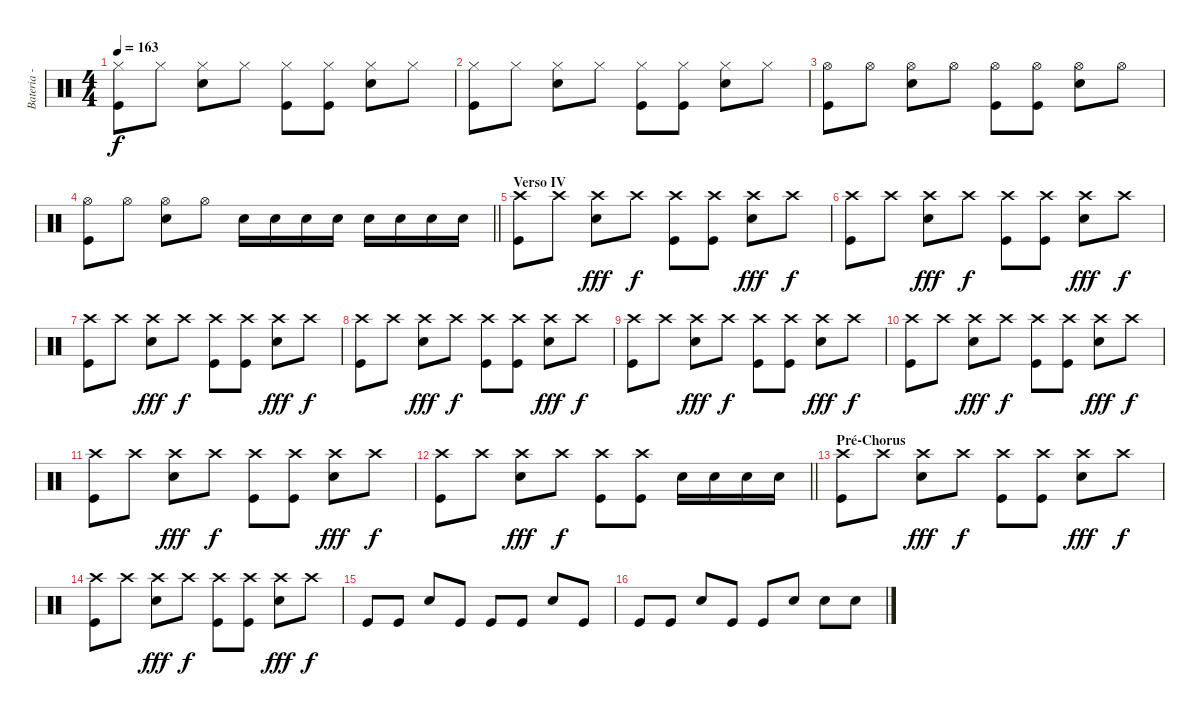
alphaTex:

\track ("Bateria - Larzon " "Bateria - ") {instrument percussion}
\staff {score}
\articulation defaults
\ts (4 4)
\tempo 163
\clef neutral
\ks c
("Kick (hit)" "Hi-Hat (closed)").8{dy f} "Hi-Hat (closed)".8 ("Electric Snare (hit)" "Hi-Hat (closed)").8 "Hi-Hat (closed)".8 ("Kick (hit)" "Hi-Hat (closed)").8 ("Kick (hit)" "Hi-Hat (closed)").8 ("Electric Snare (hit)" "Hi-Hat (closed)").8 "Hi-Hat (closed)".8 |
("Kick (hit)" "Hi-Hat (closed)").8 "Hi-Hat (closed)".8 ("Electric Snare (hit)" "Hi-Hat (closed)").8 "Hi-Hat (closed)".8 ("Kick (hit)" "Hi-Hat (closed)").8 ("Kick (hit)" "Hi-Hat (closed)").8 ("Electric Snare (hit)" "Hi-Hat (closed)").8 "Hi-Hat (closed)".8 |
("Kick (hit)" "Hi-Hat (open)").8 "Hi-Hat (open)".8 ("Electric Snare (hit)" "Hi-Hat (open)").8 "Hi-Hat (open)".8 ("Kick (hit)" "Hi-Hat (open)").8 ("Kick (hit)" "Hi-Hat (open)").8 ("Electric Snare (hit)" "Hi-Hat (open)").8 "Hi-Hat (open)".8 |
\barLineRight lightlight
("Kick (hit)" "Hi-Hat (open)").8 "Hi-Hat (open)".8 ("Electric Snare (hit)" "Hi-Hat (open)").8 "Hi-Hat (open)".8 "Electric Snare (hit)".16 "Electric Snare (hit)".16 "Electric Snare (hit)".16 "Electric Snare (hit)".16 "Electric Snare (hit)".16 "Electric Snare (hit)".16 "Electric Snare (hit)".16 "Electric Snare (hit)".16 |
\section ("" "Verso IV")
("Kick (hit)" "Crash high (hit)").8 "Crash high (hit)".8 ("Electric Snare (hit)" "Crash high (hit)").8{dy fff} "Crash high (hit)".8{dy f} ("Kick (hit)" "Crash high (hit)").8 ("Kick (hit)" "Crash high (hit)").8 ("Electric Snare (hit)" "Crash high (hit)").8{dy fff} "Crash high (hit)".8{dy f} |
("Kick (hit)" "Crash high (hit)").8 "Crash high (hit)".8 ("Electric Snare (hit)" "Crash high (hit)").8{dy fff} "Crash high (hit)".8{dy f} ("Kick (hit)" "Crash high (hit)").8 ("Kick (hit)" "Crash high (hit)").8 ("Electric Snare (hit)" "Crash high (hit)").8{dy fff} "Crash high (hit)".8{dy f} |
("Kick (hit)" "Crash high (hit)").8 "Crash high (hit)".8 ("Electric Snare (hit)" "Crash high (hit)").8{dy fff} "Crash high (hit)".8{dy f} ("Kick (hit)" "Crash high (hit)").8 ("Kick (hit)" "Crash high (hit)").8 ("Electric Snare (hit)" "Crash high (hit)").8{dy fff} "Crash high (hit)".8{dy f} |
("Kick (hit)" "Crash high (hit)").8 "Crash high (hit)".8 ("Electric Snare (hit)" "Crash high (hit)").8{dy fff} "Crash high (hit)".8{dy f} ("Kick (hit)" "Crash high (hit)").8 ("Kick (hit)" "Crash high (hit)").8 ("Electric Snare (hit)" "Crash high (hit)").8{dy fff} "Crash high (hit)".8{dy f} |
("Kick (hit)" "Crash high (hit)").8 "Crash high (hit)".8 ("Electric Snare (hit)" "Crash high (hit)").8{dy fff} "Crash high (hit)".8{dy f} ("Kick (hit)" "Crash high (hit)").8 ("Kick (hit)" "Crash high (hit)").8 ("Electric Snare (hit)" "Crash high (hit)").8{dy fff} "Crash high (hit)".8{dy f} |
("Kick (hit)" "Crash high (hit)").8 "Crash high (hit)".8 ("Electric Snare (hit)" "Crash high (hit)").8{dy fff} "Crash high (hit)".8{dy f} ("Kick (hit)" "Crash high (hit)").8 ("Kick (hit)" "Crash high (hit)").8 ("Electric Snare (hit)" "Crash high (hit)").8{dy fff} "Crash high (hit)".8{dy f} |
("Kick (hit)" "Crash high (hit)").8 "Crash high (hit)".8 ("Electric Snare (hit)" "Crash high (hit)").8{dy fff} "Crash high (hit)".8{dy f} ("Kick (hit)" "Crash high (hit)").8 ("Kick (hit)" "Crash high (hit)").8 ("Electric Snare (hit)" "Crash high (hit)").8{dy fff} "Crash high (hit)".8{dy f} |
\barLineRight lightlight
("Kick (hit)" "Crash high (hit)").8 "Crash high (hit)".8 ("Electric Snare (hit)" "Crash high (hit)").8{dy fff} "Crash high (hit)".8{dy f} ("Kick (hit)" "Crash high (hit)").8 ("Kick (hit)" "Crash high (hit)").8 "Electric Snare (hit)".16 "Electric Snare (hit)".16 "Electric Snare (hit)".16 "Electric Snare (hit)".16 |
\section ("" "Pré-Chorus")
("Kick (hit)" "Crash high (hit)").8 "Crash high (hit)".8 ("Electric Snare (hit)" "Crash high (hit)").8{dy fff} "Crash high (hit)".8{dy f} ("Kick (hit)" "Crash high (hit)").8 ("Kick (hit)" "Crash high (hit)").8 ("Electric Snare (hit)" "Crash high (hit)").8{dy fff} "Crash high (hit)".8{dy f} |
("Kick (hit)" "Crash high (hit)").8 "Crash high (hit)".8 ("Electric Snare (hit)" "Crash high (hit)").8{dy fff} "Crash high (hit)".8{dy f} ("Kick (hit)" "Crash high (hit)").8 ("Kick (hit)" "Crash high (hit)").8 ("Electric Snare (hit)" "Crash high (hit)").8{dy fff} "Crash high (hit)".8{dy f} |
"Kick (hit)".8 "Kick (hit)".8 "Electric Snare (hit)".8 "Kick (hit)".8 "Kick (hit)".8 "Kick (hit)".8 "Electric Snare (hit)".8 "Kick (hit)".8 |
"Kick (hit)".8 "Kick (hit)".8 "Electric Snare (hit)".8 "Kick (hit)".8 "Kick (hit)".8 "Electric Snare (hit)".8 "Electric Snare (hit)".8 "Electric Snare (hit)".8
